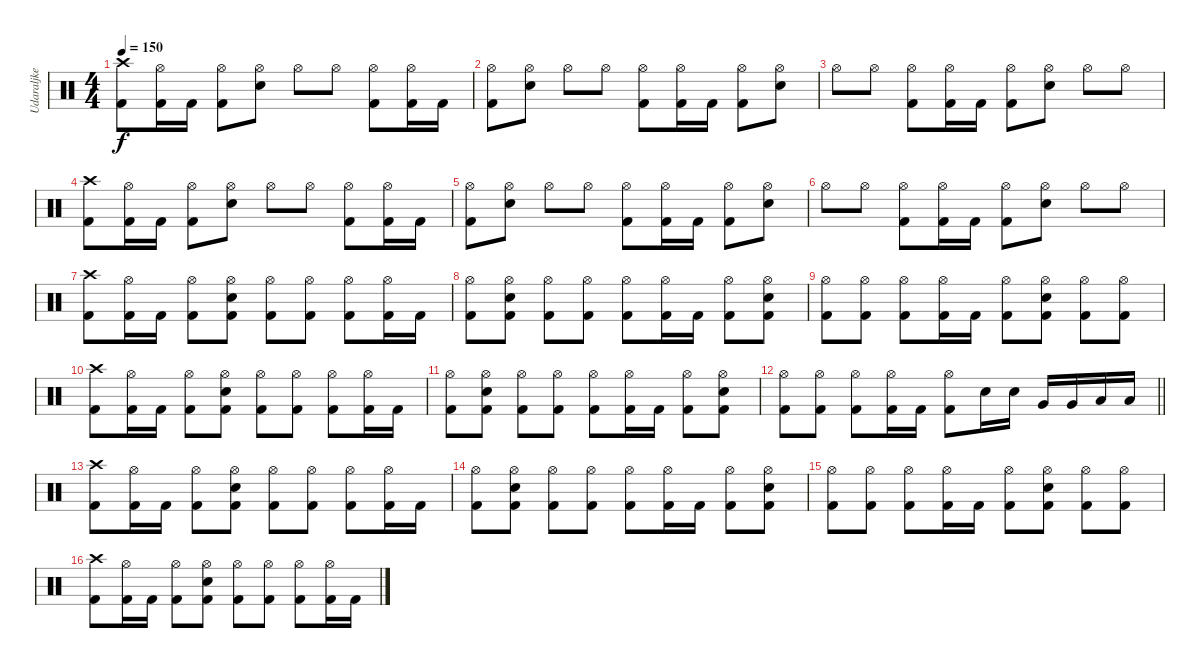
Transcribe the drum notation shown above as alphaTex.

\track ("Udaraljke" "Udaraljke") {instrument percussion}
\staff {score}
\articulation defaults
\ts (4 4)
\tempo 150
\clef neutral
\ks c
("Crash high (hit)" "Kick (hit) 2").8{dy f} ("Hi-Hat (open)" "Kick (hit) 2").16 "Kick (hit) 2".16 ("Hi-Hat (open)" "Kick (hit) 2").8 ("Hi-Hat (open)" "Electric Snare (hit)").8 "Hi-Hat (open)".8 "Hi-Hat (open)".8 ("Hi-Hat (open)" "Kick (hit) 2").8 ("Hi-Hat (open)" "Kick (hit) 2").16 "Kick (hit) 2".16 |
("Hi-Hat (open)" "Kick (hit) 2").8 ("Hi-Hat (open)" "Electric Snare (hit)").8 "Hi-Hat (open)".8 "Hi-Hat (open)".8 ("Hi-Hat (open)" "Kick (hit) 2").8 ("Hi-Hat (open)" "Kick (hit) 2").16 "Kick (hit) 2".16 ("Hi-Hat (open)" "Kick (hit) 2").8 ("Hi-Hat (open)" "Electric Snare (hit)").8 |
"Hi-Hat (open)".8 "Hi-Hat (open)".8 ("Hi-Hat (open)" "Kick (hit) 2").8 ("Hi-Hat (open)" "Kick (hit) 2").16 "Kick (hit) 2".16 ("Hi-Hat (open)" "Kick (hit) 2").8 ("Hi-Hat (open)" "Electric Snare (hit)").8 "Hi-Hat (open)".8 "Hi-Hat (open)".8 |
("Crash high (hit)" "Kick (hit) 2").8 ("Hi-Hat (open)" "Kick (hit) 2").16 "Kick (hit) 2".16 ("Hi-Hat (open)" "Kick (hit) 2").8 ("Hi-Hat (open)" "Electric Snare (hit)").8 "Hi-Hat (open)".8 "Hi-Hat (open)".8 ("Hi-Hat (open)" "Kick (hit) 2").8 ("Hi-Hat (open)" "Kick (hit) 2").16 "Kick (hit) 2".16 |
("Hi-Hat (open)" "Kick (hit) 2").8 ("Hi-Hat (open)" "Electric Snare (hit)").8 "Hi-Hat (open)".8 "Hi-Hat (open)".8 ("Hi-Hat (open)" "Kick (hit) 2").8 ("Hi-Hat (open)" "Kick (hit) 2").16 "Kick (hit) 2".16 ("Hi-Hat (open)" "Kick (hit) 2").8 ("Hi-Hat (open)" "Electric Snare (hit)").8 |
"Hi-Hat (open)".8 "Hi-Hat (open)".8 ("Hi-Hat (open)" "Kick (hit) 2").8 ("Hi-Hat (open)" "Kick (hit) 2").16 "Kick (hit) 2".16 ("Hi-Hat (open)" "Kick (hit) 2").8 ("Hi-Hat (open)" "Electric Snare (hit)").8 "Hi-Hat (open)".8 "Hi-Hat (open)".8 |
("Crash high (hit)" "Kick (hit) 2").8 ("Hi-Hat (open)" "Kick (hit) 2").16 "Kick (hit) 2".16 ("Hi-Hat (open)" "Kick (hit) 2").8 ("Hi-Hat (open)" "Electric Snare (hit)" "Kick (hit) 2").8 ("Hi-Hat (open)" "Kick (hit) 2").8 ("Hi-Hat (open)" "Kick (hit) 2").8 ("Hi-Hat (open)" "Kick (hit) 2").8 ("Hi-Hat (open)" "Kick (hit) 2").16 "Kick (hit) 2".16 |
("Hi-Hat (open)" "Kick (hit) 2").8 ("Hi-Hat (open)" "Electric Snare (hit)" "Kick (hit) 2").8 ("Hi-Hat (open)" "Kick (hit) 2").8 ("Hi-Hat (open)" "Kick (hit) 2").8 ("Hi-Hat (open)" "Kick (hit) 2").8 ("Hi-Hat (open)" "Kick (hit) 2").16 "Kick (hit) 2".16 ("Hi-Hat (open)" "Kick (hit) 2").8 ("Hi-Hat (open)" "Electric Snare (hit)" "Kick (hit) 2").8 |
("Hi-Hat (open)" "Kick (hit) 2").8 ("Hi-Hat (open)" "Kick (hit) 2").8 ("Hi-Hat (open)" "Kick (hit) 2").8 ("Hi-Hat (open)" "Kick (hit) 2").16 "Kick (hit) 2".16 ("Hi-Hat (open)" "Kick (hit) 2").8 ("Hi-Hat (open)" "Electric Snare (hit)" "Kick (hit) 2").8 ("Hi-Hat (open)" "Kick (hit) 2").8 ("Hi-Hat (open)" "Kick (hit) 2").8 |
("Crash high (hit)" "Kick (hit) 2").8 ("Hi-Hat (open)" "Kick (hit) 2").16 "Kick (hit) 2".16 ("Hi-Hat (open)" "Kick (hit) 2").8 ("Hi-Hat (open)" "Electric Snare (hit)" "Kick (hit) 2").8 ("Hi-Hat (open)" "Kick (hit) 2").8 ("Hi-Hat (open)" "Kick (hit) 2").8 ("Hi-Hat (open)" "Kick (hit) 2").8 ("Hi-Hat (open)" "Kick (hit) 2").16 "Kick (hit) 2".16 |
("Hi-Hat (open)" "Kick (hit) 2").8 ("Hi-Hat (open)" "Electric Snare (hit)" "Kick (hit) 2").8 ("Hi-Hat (open)" "Kick (hit) 2").8 ("Hi-Hat (open)" "Kick (hit) 2").8 ("Hi-Hat (open)" "Kick (hit) 2").8 ("Hi-Hat (open)" "Kick (hit) 2").16 "Kick (hit) 2".16 ("Hi-Hat (open)" "Kick (hit) 2").8 ("Hi-Hat (open)" "Electric Snare (hit)" "Kick (hit) 2").8 |
\barLineRight lightlight
("Hi-Hat (open)" "Kick (hit) 2").8 ("Hi-Hat (open)" "Kick (hit) 2").8 ("Hi-Hat (open)" "Kick (hit) 2").8 ("Hi-Hat (open)" "Kick (hit) 2").16 "Kick (hit) 2".16 ("Hi-Hat (open)" "Kick (hit) 2").8 "Electric Snare (hit)".16 "Electric Snare (hit)".16 "Very Low Tom (hit)".16 "Very Low Tom (hit)".16 "Low Floor Tom (hit)".16 "Low Floor Tom (hit)".16 |
\section ("" "")
("Crash high (hit)" "Kick (hit) 2").8 ("Hi-Hat (open)" "Kick (hit) 2").16 "Kick (hit) 2".16 ("Hi-Hat (open)" "Kick (hit) 2").8 ("Hi-Hat (open)" "Electric Snare (hit)" "Kick (hit) 2").8 ("Hi-Hat (open)" "Kick (hit) 2").8 ("Hi-Hat (open)" "Kick (hit) 2").8 ("Hi-Hat (open)" "Kick (hit) 2").8 ("Hi-Hat (open)" "Kick (hit) 2").16 "Kick (hit) 2".16 |
("Hi-Hat (open)" "Kick (hit) 2").8 ("Hi-Hat (open)" "Electric Snare (hit)" "Kick (hit) 2").8 ("Hi-Hat (open)" "Kick (hit) 2").8 ("Hi-Hat (open)" "Kick (hit) 2").8 ("Hi-Hat (open)" "Kick (hit) 2").8 ("Hi-Hat (open)" "Kick (hit) 2").16 "Kick (hit) 2".16 ("Hi-Hat (open)" "Kick (hit) 2").8 ("Hi-Hat (open)" "Electric Snare (hit)" "Kick (hit) 2").8 |
("Hi-Hat (open)" "Kick (hit) 2").8 ("Hi-Hat (open)" "Kick (hit) 2").8 ("Hi-Hat (open)" "Kick (hit) 2").8 ("Hi-Hat (open)" "Kick (hit) 2").16 "Kick (hit) 2".16 ("Hi-Hat (open)" "Kick (hit) 2").8 ("Hi-Hat (open)" "Electric Snare (hit)" "Kick (hit) 2").8 ("Hi-Hat (open)" "Kick (hit) 2").8 ("Hi-Hat (open)" "Kick (hit) 2").8 |
("Crash high (hit)" "Kick (hit) 2").8 ("Hi-Hat (open)" "Kick (hit) 2").16 "Kick (hit) 2".16 ("Hi-Hat (open)" "Kick (hit) 2").8 ("Hi-Hat (open)" "Electric Snare (hit)" "Kick (hit) 2").8 ("Hi-Hat (open)" "Kick (hit) 2").8 ("Hi-Hat (open)" "Kick (hit) 2").8 ("Hi-Hat (open)" "Kick (hit) 2").8 ("Hi-Hat (open)" "Kick (hit) 2").16 "Kick (hit) 2".16
